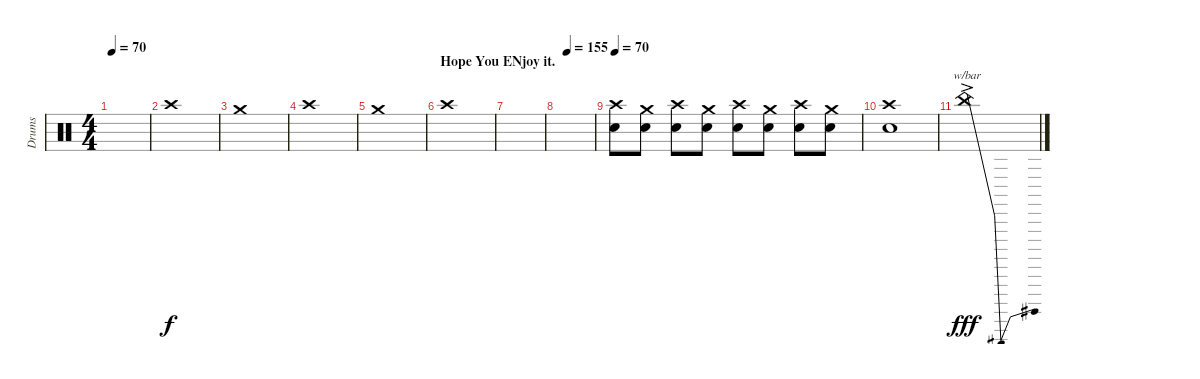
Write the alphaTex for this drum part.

\track ("Drums" "Drums") {instrument percussion}
\staff {score}
\articulation defaults
\ts (4 4)
\tempo 70
\clef neutral
\ks c
|
"Crash high (hit)".1{volume 16} |
"Crash medium (hit)".1 |
"Crash high (hit)".1 |
"Crash medium (hit)".1 |
\section ("" "Hope You ENjoy it.")
"Crash high (hit)".1 |
|
\tempo (155 0.25)
|
\tempo 70
("Crash high (hit)" "Electric Snare (hit)").8 ("Crash medium (hit)" "Electric Snare (hit)").8 ("Crash high (hit)" "Electric Snare (hit)").8 ("Crash medium (hit)" "Electric Snare (hit)").8 ("Crash high (hit)" "Electric Snare (hit)").8 ("Crash medium (hit)" "Electric Snare (hit)").8 ("Crash high (hit)" "Electric Snare (hit)").8 ("Crash medium (hit)" "Electric Snare (hit)").8 |
("Crash high (hit)" "Electric Snare (hit)").1 |
"China (hit)"{ac}.1{tbe (dip default 0 0 30 -24 60 0) dy fff volume 16}
